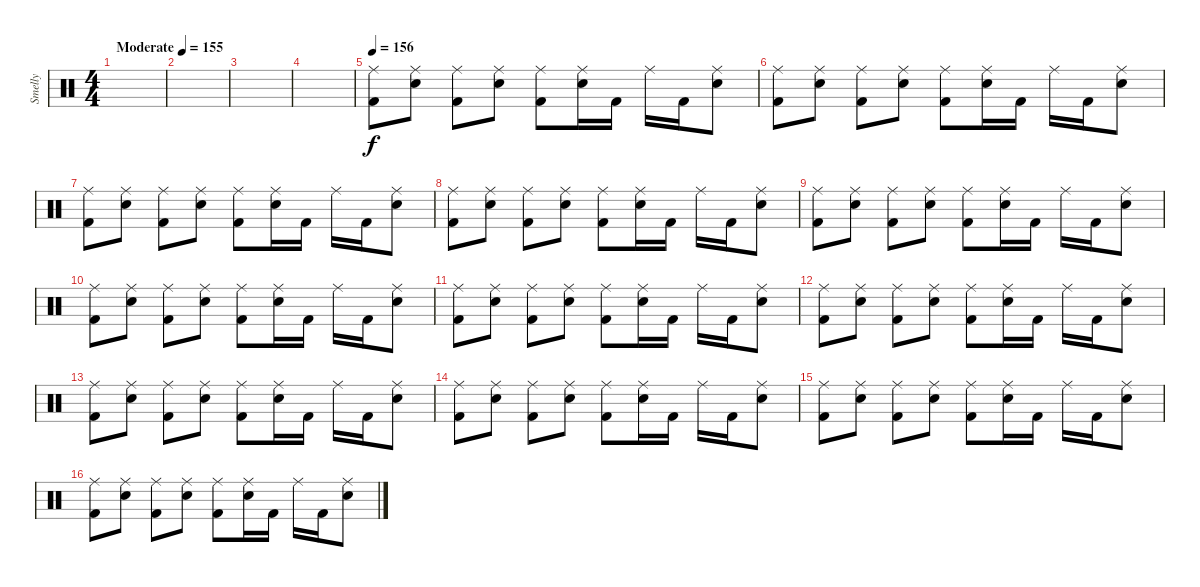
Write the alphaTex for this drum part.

\track ("Smelly" "Smelly") {instrument percussion}
\staff {score}
\articulation defaults
\ts (4 4)
\tempo (155 "Moderate")
\clef neutral
\ks c
|
|
|
|
\tempo 156
("Ride (middle)" "Kick (hit) 2").8 ("Ride (middle)" "Electric Snare (hit)").8 ("Ride (middle)" "Kick (hit) 2").8 ("Ride (middle)" "Electric Snare (hit)").8 ("Ride (middle)" "Kick (hit) 2").8 ("Ride (middle)" "Electric Snare (hit)").16 "Kick (hit) 2".16 "Ride (middle)".16 "Kick (hit) 2".16 ("Ride (middle)" "Electric Snare (hit)").8 |
("Ride (middle)" "Kick (hit) 2").8 ("Ride (middle)" "Electric Snare (hit)").8 ("Ride (middle)" "Kick (hit) 2").8 ("Ride (middle)" "Electric Snare (hit)").8 ("Ride (middle)" "Kick (hit) 2").8 ("Ride (middle)" "Electric Snare (hit)").16 "Kick (hit) 2".16 "Ride (middle)".16 "Kick (hit) 2".16 ("Ride (middle)" "Electric Snare (hit)").8 |
("Ride (middle)" "Kick (hit) 2").8 ("Ride (middle)" "Electric Snare (hit)").8 ("Ride (middle)" "Kick (hit) 2").8 ("Ride (middle)" "Electric Snare (hit)").8 ("Ride (middle)" "Kick (hit) 2").8 ("Ride (middle)" "Electric Snare (hit)").16 "Kick (hit) 2".16 "Ride (middle)".16 "Kick (hit) 2".16 ("Ride (middle)" "Electric Snare (hit)").8 |
("Ride (middle)" "Kick (hit) 2").8 ("Ride (middle)" "Electric Snare (hit)").8 ("Ride (middle)" "Kick (hit) 2").8 ("Ride (middle)" "Electric Snare (hit)").8 ("Ride (middle)" "Kick (hit) 2").8 ("Ride (middle)" "Electric Snare (hit)").16 "Kick (hit) 2".16 "Ride (middle)".16 "Kick (hit) 2".16 ("Ride (middle)" "Electric Snare (hit)").8 |
("Ride (middle)" "Kick (hit) 2").8 ("Ride (middle)" "Electric Snare (hit)").8 ("Ride (middle)" "Kick (hit) 2").8 ("Ride (middle)" "Electric Snare (hit)").8 ("Ride (middle)" "Kick (hit) 2").8 ("Ride (middle)" "Electric Snare (hit)").16 "Kick (hit) 2".16 "Ride (middle)".16 "Kick (hit) 2".16 ("Ride (middle)" "Electric Snare (hit)").8 |
("Ride (middle)" "Kick (hit) 2").8 ("Ride (middle)" "Electric Snare (hit)").8 ("Ride (middle)" "Kick (hit) 2").8 ("Ride (middle)" "Electric Snare (hit)").8 ("Ride (middle)" "Kick (hit) 2").8 ("Ride (middle)" "Electric Snare (hit)").16 "Kick (hit) 2".16 "Ride (middle)".16 "Kick (hit) 2".16 ("Ride (middle)" "Electric Snare (hit)").8 |
("Ride (middle)" "Kick (hit) 2").8 ("Ride (middle)" "Electric Snare (hit)").8 ("Ride (middle)" "Kick (hit) 2").8 ("Ride (middle)" "Electric Snare (hit)").8 ("Ride (middle)" "Kick (hit) 2").8 ("Ride (middle)" "Electric Snare (hit)").16 "Kick (hit) 2".16 "Ride (middle)".16 "Kick (hit) 2".16 ("Ride (middle)" "Electric Snare (hit)").8 |
("Ride (middle)" "Kick (hit) 2").8 ("Ride (middle)" "Electric Snare (hit)").8 ("Ride (middle)" "Kick (hit) 2").8 ("Ride (middle)" "Electric Snare (hit)").8 ("Ride (middle)" "Kick (hit) 2").8 ("Ride (middle)" "Electric Snare (hit)").16 "Kick (hit) 2".16 "Ride (middle)".16 "Kick (hit) 2".16 ("Ride (middle)" "Electric Snare (hit)").8 |
("Ride (middle)" "Kick (hit) 2").8 ("Ride (middle)" "Electric Snare (hit)").8 ("Ride (middle)" "Kick (hit) 2").8 ("Ride (middle)" "Electric Snare (hit)").8 ("Ride (middle)" "Kick (hit) 2").8 ("Ride (middle)" "Electric Snare (hit)").16 "Kick (hit) 2".16 "Ride (middle)".16 "Kick (hit) 2".16 ("Ride (middle)" "Electric Snare (hit)").8 |
("Ride (middle)" "Kick (hit) 2").8 ("Ride (middle)" "Electric Snare (hit)").8 ("Ride (middle)" "Kick (hit) 2").8 ("Ride (middle)" "Electric Snare (hit)").8 ("Ride (middle)" "Kick (hit) 2").8 ("Ride (middle)" "Electric Snare (hit)").16 "Kick (hit) 2".16 "Ride (middle)".16 "Kick (hit) 2".16 ("Ride (middle)" "Electric Snare (hit)").8 |
("Ride (middle)" "Kick (hit) 2").8 ("Ride (middle)" "Electric Snare (hit)").8 ("Ride (middle)" "Kick (hit) 2").8 ("Ride (middle)" "Electric Snare (hit)").8 ("Ride (middle)" "Kick (hit) 2").8 ("Ride (middle)" "Electric Snare (hit)").16 "Kick (hit) 2".16 "Ride (middle)".16 "Kick (hit) 2".16 ("Ride (middle)" "Electric Snare (hit)").8 |
("Ride (middle)" "Kick (hit) 2").8 ("Ride (middle)" "Electric Snare (hit)").8 ("Ride (middle)" "Kick (hit) 2").8 ("Ride (middle)" "Electric Snare (hit)").8 ("Ride (middle)" "Kick (hit) 2").8 ("Ride (middle)" "Electric Snare (hit)").16 "Kick (hit) 2".16 "Ride (middle)".16 "Kick (hit) 2".16 ("Ride (middle)" "Electric Snare (hit)").8
